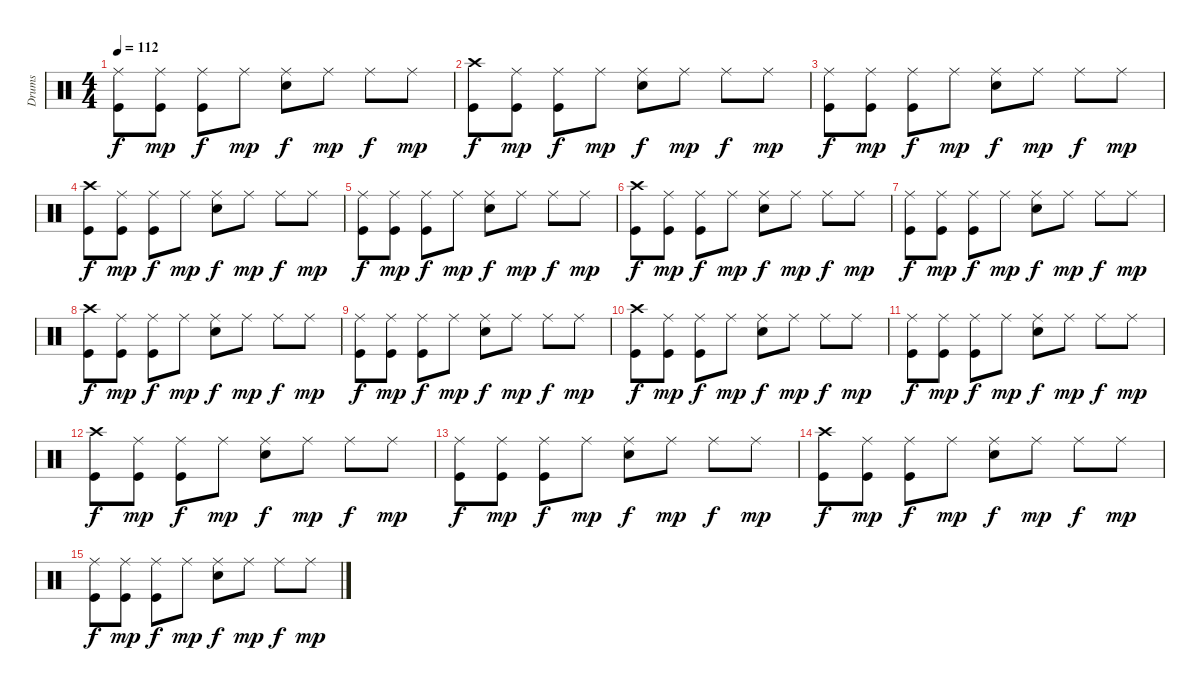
\track ("Drums" "Drums") {instrument percussion}
\staff {score}
\articulation defaults
\ts (4 4)
\tempo 112
\clef neutral
\ks c
("Ride (middle)" "Kick (hit)").8{dy f} ("Ride (middle)" "Kick (hit)").8{dy mp} ("Ride (middle)" "Kick (hit)").8{dy f} "Ride (middle)".8{dy mp} ("Ride (middle)" "Snare (hit) 2").8{dy f} "Ride (middle)".8{dy mp} "Ride (middle)".8{dy f} "Ride (middle)".8{dy mp} |
("Crash high (hit)" "Kick (hit)").8{dy f} ("Ride (middle)" "Kick (hit)").8{dy mp} ("Ride (middle)" "Kick (hit)").8{dy f} "Ride (middle)".8{dy mp} ("Ride (middle)" "Snare (hit) 2").8{dy f} "Ride (middle)".8{dy mp} "Ride (middle)".8{dy f} "Ride (middle)".8{dy mp} |
("Ride (middle)" "Kick (hit)").8{dy f} ("Ride (middle)" "Kick (hit)").8{dy mp} ("Ride (middle)" "Kick (hit)").8{dy f} "Ride (middle)".8{dy mp} ("Ride (middle)" "Snare (hit) 2").8{dy f} "Ride (middle)".8{dy mp} "Ride (middle)".8{dy f} "Ride (middle)".8{dy mp} |
("Crash high (hit)" "Kick (hit)").8{dy f} ("Ride (middle)" "Kick (hit)").8{dy mp} ("Ride (middle)" "Kick (hit)").8{dy f} "Ride (middle)".8{dy mp} ("Ride (middle)" "Snare (hit) 2").8{dy f} "Ride (middle)".8{dy mp} "Ride (middle)".8{dy f} "Ride (middle)".8{dy mp} |
("Ride (middle)" "Kick (hit)").8{dy f} ("Ride (middle)" "Kick (hit)").8{dy mp} ("Ride (middle)" "Kick (hit)").8{dy f} "Ride (middle)".8{dy mp} ("Ride (middle)" "Snare (hit) 2").8{dy f} "Ride (middle)".8{dy mp} "Ride (middle)".8{dy f} "Ride (middle)".8{dy mp} |
("Crash high (hit)" "Kick (hit)").8{dy f} ("Ride (middle)" "Kick (hit)").8{dy mp} ("Ride (middle)" "Kick (hit)").8{dy f} "Ride (middle)".8{dy mp} ("Ride (middle)" "Snare (hit) 2").8{dy f} "Ride (middle)".8{dy mp} "Ride (middle)".8{dy f} "Ride (middle)".8{dy mp} |
("Ride (middle)" "Kick (hit)").8{dy f} ("Ride (middle)" "Kick (hit)").8{dy mp} ("Ride (middle)" "Kick (hit)").8{dy f} "Ride (middle)".8{dy mp} ("Ride (middle)" "Snare (hit) 2").8{dy f} "Ride (middle)".8{dy mp} "Ride (middle)".8{dy f} "Ride (middle)".8{dy mp} |
("Crash high (hit)" "Kick (hit)").8{dy f} ("Ride (middle)" "Kick (hit)").8{dy mp} ("Ride (middle)" "Kick (hit)").8{dy f} "Ride (middle)".8{dy mp} ("Ride (middle)" "Snare (hit) 2").8{dy f} "Ride (middle)".8{dy mp} "Ride (middle)".8{dy f} "Ride (middle)".8{dy mp} |
("Ride (middle)" "Kick (hit)").8{dy f} ("Ride (middle)" "Kick (hit)").8{dy mp} ("Ride (middle)" "Kick (hit)").8{dy f} "Ride (middle)".8{dy mp} ("Ride (middle)" "Snare (hit) 2").8{dy f} "Ride (middle)".8{dy mp} "Ride (middle)".8{dy f} "Ride (middle)".8{dy mp} |
("Crash high (hit)" "Kick (hit)").8{dy f} ("Ride (middle)" "Kick (hit)").8{dy mp} ("Ride (middle)" "Kick (hit)").8{dy f} "Ride (middle)".8{dy mp} ("Ride (middle)" "Snare (hit) 2").8{dy f} "Ride (middle)".8{dy mp} "Ride (middle)".8{dy f} "Ride (middle)".8{dy mp} |
("Ride (middle)" "Kick (hit)").8{dy f} ("Ride (middle)" "Kick (hit)").8{dy mp} ("Ride (middle)" "Kick (hit)").8{dy f} "Ride (middle)".8{dy mp} ("Ride (middle)" "Snare (hit) 2").8{dy f} "Ride (middle)".8{dy mp} "Ride (middle)".8{dy f} "Ride (middle)".8{dy mp} |
("Crash high (hit)" "Kick (hit)").8{dy f} ("Ride (middle)" "Kick (hit)").8{dy mp} ("Ride (middle)" "Kick (hit)").8{dy f} "Ride (middle)".8{dy mp} ("Ride (middle)" "Snare (hit) 2").8{dy f} "Ride (middle)".8{dy mp} "Ride (middle)".8{dy f} "Ride (middle)".8{dy mp} |
("Ride (middle)" "Kick (hit)").8{dy f} ("Ride (middle)" "Kick (hit)").8{dy mp} ("Ride (middle)" "Kick (hit)").8{dy f} "Ride (middle)".8{dy mp} ("Ride (middle)" "Snare (hit) 2").8{dy f} "Ride (middle)".8{dy mp} "Ride (middle)".8{dy f} "Ride (middle)".8{dy mp} |
("Crash high (hit)" "Kick (hit)").8{dy f} ("Ride (middle)" "Kick (hit)").8{dy mp} ("Ride (middle)" "Kick (hit)").8{dy f} "Ride (middle)".8{dy mp} ("Ride (middle)" "Snare (hit) 2").8{dy f} "Ride (middle)".8{dy mp} "Ride (middle)".8{dy f} "Ride (middle)".8{dy mp} |
("Ride (middle)" "Kick (hit)").8{dy f} ("Ride (middle)" "Kick (hit)").8{dy mp} ("Ride (middle)" "Kick (hit)").8{dy f} "Ride (middle)".8{dy mp} ("Ride (middle)" "Snare (hit) 2").8{dy f} "Ride (middle)".8{dy mp} "Ride (middle)".8{dy f} "Ride (middle)".8{dy mp}
